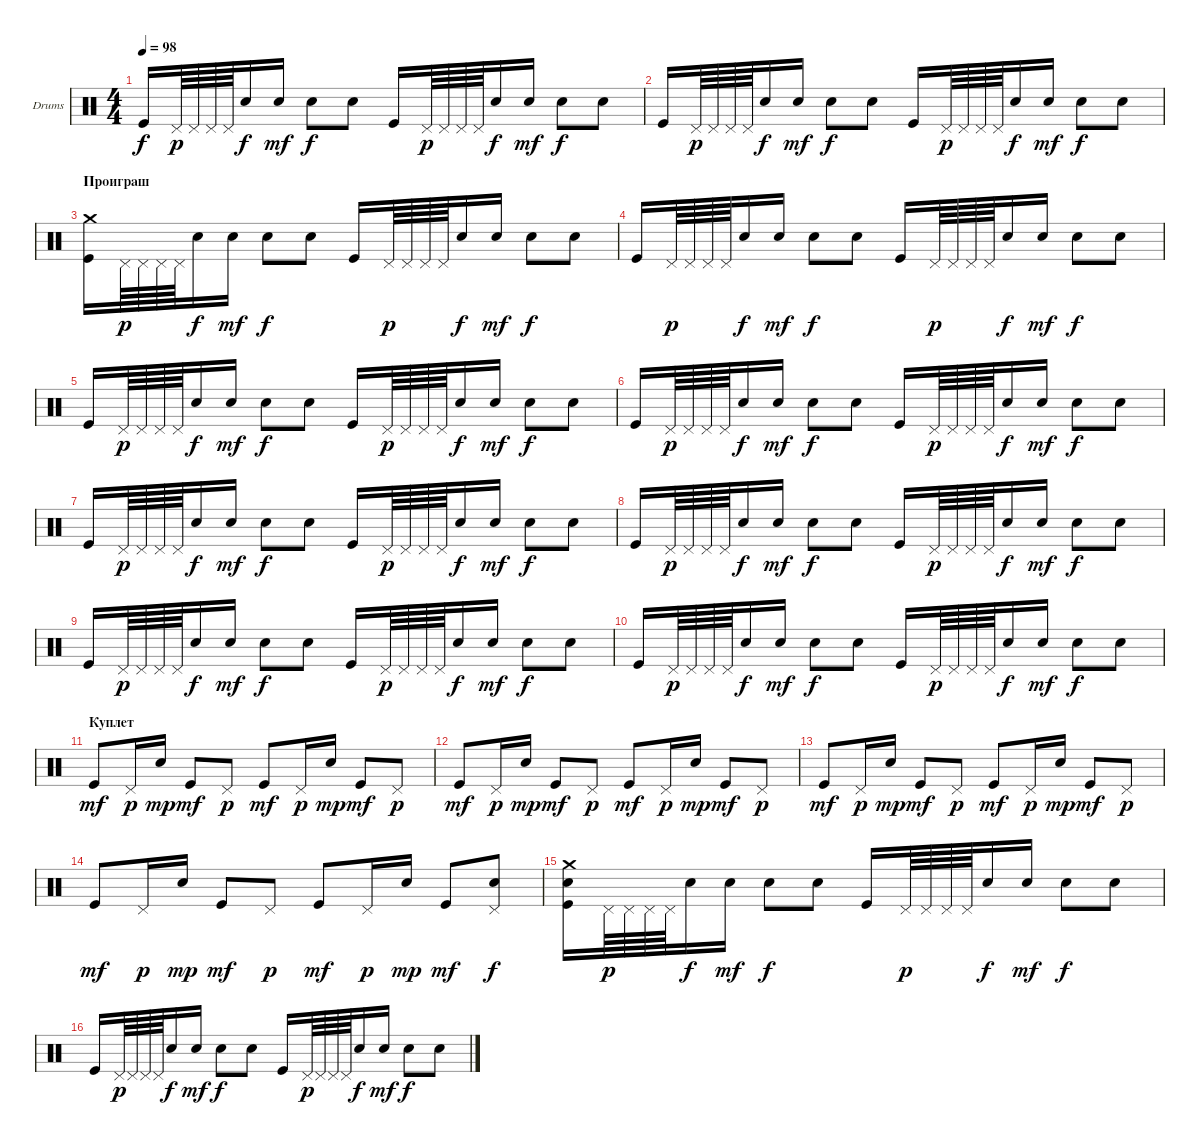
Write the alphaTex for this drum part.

\defaultSystemsLayout 4
\bracketExtendMode groupsimilarinstruments
\firstSystemTrackNameOrientation horizontal
\otherSystemsTrackNameOrientation horizontal
\track ("Е. Кулаков" "Drums") {instrument percussion}
\staff {score}
\articulation defaults
\ts (4 4)
\tempo 98
\clef neutral
\ks c "Kick (hit)".16{dy f} "Pedal Hi-Hat (hit)".64{dy p} "Pedal Hi-Hat (hit)".64 "Pedal Hi-Hat (hit)".64 "Pedal Hi-Hat (hit)".64 "Snare (hit) 2".16{dy f} "Snare (hit) 2".16{dy mf} "Snare (hit) 2".8{dy f} "Snare (hit) 2".8 "Kick (hit)".16 "Pedal Hi-Hat (hit)".64{dy p} "Pedal Hi-Hat (hit)".64 "Pedal Hi-Hat (hit)".64 "Pedal Hi-Hat (hit)".64 "Snare (hit) 2".16{dy f} "Snare (hit) 2".16{dy mf} "Snare (hit) 2".8{dy f} "Snare (hit) 2".8
|
"Kick (hit)".16 "Pedal Hi-Hat (hit)".64{dy p} "Pedal Hi-Hat (hit)".64 "Pedal Hi-Hat (hit)".64 "Pedal Hi-Hat (hit)".64 "Snare (hit) 2".16{dy f} "Snare (hit) 2".16{dy mf} "Snare (hit) 2".8{dy f} "Snare (hit) 2".8 "Kick (hit)".16 "Pedal Hi-Hat (hit)".64{dy p} "Pedal Hi-Hat (hit)".64 "Pedal Hi-Hat (hit)".64 "Pedal Hi-Hat (hit)".64 "Snare (hit) 2".16{dy f} "Snare (hit) 2".16{dy mf} "Snare (hit) 2".8{dy f} "Snare (hit) 2".8 |
\section ("" "Проиграш")
("Kick (hit)" "Crash medium (hit)").16 "Pedal Hi-Hat (hit)".64{dy p} "Pedal Hi-Hat (hit)".64 "Pedal Hi-Hat (hit)".64 "Pedal Hi-Hat (hit)".64 "Snare (hit) 2".16{dy f} "Snare (hit) 2".16{dy mf} "Snare (hit) 2".8{dy f} "Snare (hit) 2".8 "Kick (hit)".16 "Pedal Hi-Hat (hit)".64{dy p} "Pedal Hi-Hat (hit)".64 "Pedal Hi-Hat (hit)".64 "Pedal Hi-Hat (hit)".64 "Snare (hit) 2".16{dy f} "Snare (hit) 2".16{dy mf} "Snare (hit) 2".8{dy f} "Snare (hit) 2".8 |
"Kick (hit)".16 "Pedal Hi-Hat (hit)".64{dy p} "Pedal Hi-Hat (hit)".64 "Pedal Hi-Hat (hit)".64 "Pedal Hi-Hat (hit)".64 "Snare (hit) 2".16{dy f} "Snare (hit) 2".16{dy mf} "Snare (hit) 2".8{dy f} "Snare (hit) 2".8 "Kick (hit)".16 "Pedal Hi-Hat (hit)".64{dy p} "Pedal Hi-Hat (hit)".64 "Pedal Hi-Hat (hit)".64 "Pedal Hi-Hat (hit)".64 "Snare (hit) 2".16{dy f} "Snare (hit) 2".16{dy mf} "Snare (hit) 2".8{dy f} "Snare (hit) 2".8 |
"Kick (hit)".16 "Pedal Hi-Hat (hit)".64{dy p} "Pedal Hi-Hat (hit)".64 "Pedal Hi-Hat (hit)".64 "Pedal Hi-Hat (hit)".64 "Snare (hit) 2".16{dy f} "Snare (hit) 2".16{dy mf} "Snare (hit) 2".8{dy f} "Snare (hit) 2".8 "Kick (hit)".16 "Pedal Hi-Hat (hit)".64{dy p} "Pedal Hi-Hat (hit)".64 "Pedal Hi-Hat (hit)".64 "Pedal Hi-Hat (hit)".64 "Snare (hit) 2".16{dy f} "Snare (hit) 2".16{dy mf} "Snare (hit) 2".8{dy f} "Snare (hit) 2".8 |
"Kick (hit)".16 "Pedal Hi-Hat (hit)".64{dy p} "Pedal Hi-Hat (hit)".64 "Pedal Hi-Hat (hit)".64 "Pedal Hi-Hat (hit)".64 "Snare (hit) 2".16{dy f} "Snare (hit) 2".16{dy mf} "Snare (hit) 2".8{dy f} "Snare (hit) 2".8 "Kick (hit)".16 "Pedal Hi-Hat (hit)".64{dy p} "Pedal Hi-Hat (hit)".64 "Pedal Hi-Hat (hit)".64 "Pedal Hi-Hat (hit)".64 "Snare (hit) 2".16{dy f} "Snare (hit) 2".16{dy mf} "Snare (hit) 2".8{dy f} "Snare (hit) 2".8 |
"Kick (hit)".16 "Pedal Hi-Hat (hit)".64{dy p} "Pedal Hi-Hat (hit)".64 "Pedal Hi-Hat (hit)".64 "Pedal Hi-Hat (hit)".64 "Snare (hit) 2".16{dy f} "Snare (hit) 2".16{dy mf} "Snare (hit) 2".8{dy f} "Snare (hit) 2".8 "Kick (hit)".16 "Pedal Hi-Hat (hit)".64{dy p} "Pedal Hi-Hat (hit)".64 "Pedal Hi-Hat (hit)".64 "Pedal Hi-Hat (hit)".64 "Snare (hit) 2".16{dy f} "Snare (hit) 2".16{dy mf} "Snare (hit) 2".8{dy f} "Snare (hit) 2".8 |
"Kick (hit)".16 "Pedal Hi-Hat (hit)".64{dy p} "Pedal Hi-Hat (hit)".64 "Pedal Hi-Hat (hit)".64 "Pedal Hi-Hat (hit)".64 "Snare (hit) 2".16{dy f} "Snare (hit) 2".16{dy mf} "Snare (hit) 2".8{dy f} "Snare (hit) 2".8 "Kick (hit)".16 "Pedal Hi-Hat (hit)".64{dy p} "Pedal Hi-Hat (hit)".64 "Pedal Hi-Hat (hit)".64 "Pedal Hi-Hat (hit)".64 "Snare (hit) 2".16{dy f} "Snare (hit) 2".16{dy mf} "Snare (hit) 2".8{dy f} "Snare (hit) 2".8 |
"Kick (hit)".16 "Pedal Hi-Hat (hit)".64{dy p} "Pedal Hi-Hat (hit)".64 "Pedal Hi-Hat (hit)".64 "Pedal Hi-Hat (hit)".64 "Snare (hit) 2".16{dy f} "Snare (hit) 2".16{dy mf} "Snare (hit) 2".8{dy f} "Snare (hit) 2".8 "Kick (hit)".16 "Pedal Hi-Hat (hit)".64{dy p} "Pedal Hi-Hat (hit)".64 "Pedal Hi-Hat (hit)".64 "Pedal Hi-Hat (hit)".64 "Snare (hit) 2".16{dy f} "Snare (hit) 2".16{dy mf} "Snare (hit) 2".8{dy f} "Snare (hit) 2".8 |
"Kick (hit)".16 "Pedal Hi-Hat (hit)".64{dy p} "Pedal Hi-Hat (hit)".64 "Pedal Hi-Hat (hit)".64 "Pedal Hi-Hat (hit)".64 "Snare (hit) 2".16{dy f} "Snare (hit) 2".16{dy mf} "Snare (hit) 2".8{dy f} "Snare (hit) 2".8 "Kick (hit)".16 "Pedal Hi-Hat (hit)".64{dy p} "Pedal Hi-Hat (hit)".64 "Pedal Hi-Hat (hit)".64 "Pedal Hi-Hat (hit)".64 "Snare (hit) 2".16{dy f} "Snare (hit) 2".16{dy mf} "Snare (hit) 2".8{dy f} "Snare (hit) 2".8 |
\section ("" "Куплет")
"Kick (hit)".8{dy mf} "Pedal Hi-Hat (hit)".16{dy p} "Snare (hit) 2".16{dy mp} "Kick (hit)".8{dy mf} "Pedal Hi-Hat (hit)".8{dy p} "Kick (hit)".8{dy mf} "Pedal Hi-Hat (hit)".16{dy p} "Snare (hit) 2".16{dy mp} "Kick (hit)".8{dy mf} "Pedal Hi-Hat (hit)".8{dy p} |
"Kick (hit)".8{dy mf} "Pedal Hi-Hat (hit)".16{dy p} "Snare (hit) 2".16{dy mp} "Kick (hit)".8{dy mf} "Pedal Hi-Hat (hit)".8{dy p} "Kick (hit)".8{dy mf} "Pedal Hi-Hat (hit)".16{dy p} "Snare (hit) 2".16{dy mp} "Kick (hit)".8{dy mf} "Pedal Hi-Hat (hit)".8{dy p} |
"Kick (hit)".8{dy mf} "Pedal Hi-Hat (hit)".16{dy p} "Snare (hit) 2".16{dy mp} "Kick (hit)".8{dy mf} "Pedal Hi-Hat (hit)".8{dy p} "Kick (hit)".8{dy mf} "Pedal Hi-Hat (hit)".16{dy p} "Snare (hit) 2".16{dy mp} "Kick (hit)".8{dy mf} "Pedal Hi-Hat (hit)".8{dy p} |
"Kick (hit)".8{dy mf} "Pedal Hi-Hat (hit)".16{dy p} "Snare (hit) 2".16{dy mp} "Kick (hit)".8{dy mf} "Pedal Hi-Hat (hit)".8{dy p} "Kick (hit)".8{dy mf} "Pedal Hi-Hat (hit)".16{dy p} "Snare (hit) 2".16{dy mp} "Kick (hit)".8{dy mf} ("Pedal Hi-Hat (hit)" "Snare (hit) 2").8{dy f} |
("Kick (hit)" "Snare (hit) 2" "Crash medium (hit)").16 "Pedal Hi-Hat (hit)".64{dy p} "Pedal Hi-Hat (hit)".64 "Pedal Hi-Hat (hit)".64 "Pedal Hi-Hat (hit)".64 "Snare (hit) 2".16{dy f} "Snare (hit) 2".16{dy mf} "Snare (hit) 2".8{dy f} "Snare (hit) 2".8 "Kick (hit)".16 "Pedal Hi-Hat (hit)".64{dy p} "Pedal Hi-Hat (hit)".64 "Pedal Hi-Hat (hit)".64 "Pedal Hi-Hat (hit)".64 "Snare (hit) 2".16{dy f} "Snare (hit) 2".16{dy mf} "Snare (hit) 2".8{dy f} "Snare (hit) 2".8 |
"Kick (hit)".16 "Pedal Hi-Hat (hit)".64{dy p} "Pedal Hi-Hat (hit)".64 "Pedal Hi-Hat (hit)".64 "Pedal Hi-Hat (hit)".64 "Snare (hit) 2".16{dy f} "Snare (hit) 2".16{dy mf} "Snare (hit) 2".8{dy f} "Snare (hit) 2".8 "Kick (hit)".16 "Pedal Hi-Hat (hit)".64{dy p} "Pedal Hi-Hat (hit)".64 "Pedal Hi-Hat (hit)".64 "Pedal Hi-Hat (hit)".64 "Snare (hit) 2".16{dy f} "Snare (hit) 2".16{dy mf} "Snare (hit) 2".8{dy f} "Snare (hit) 2".8
